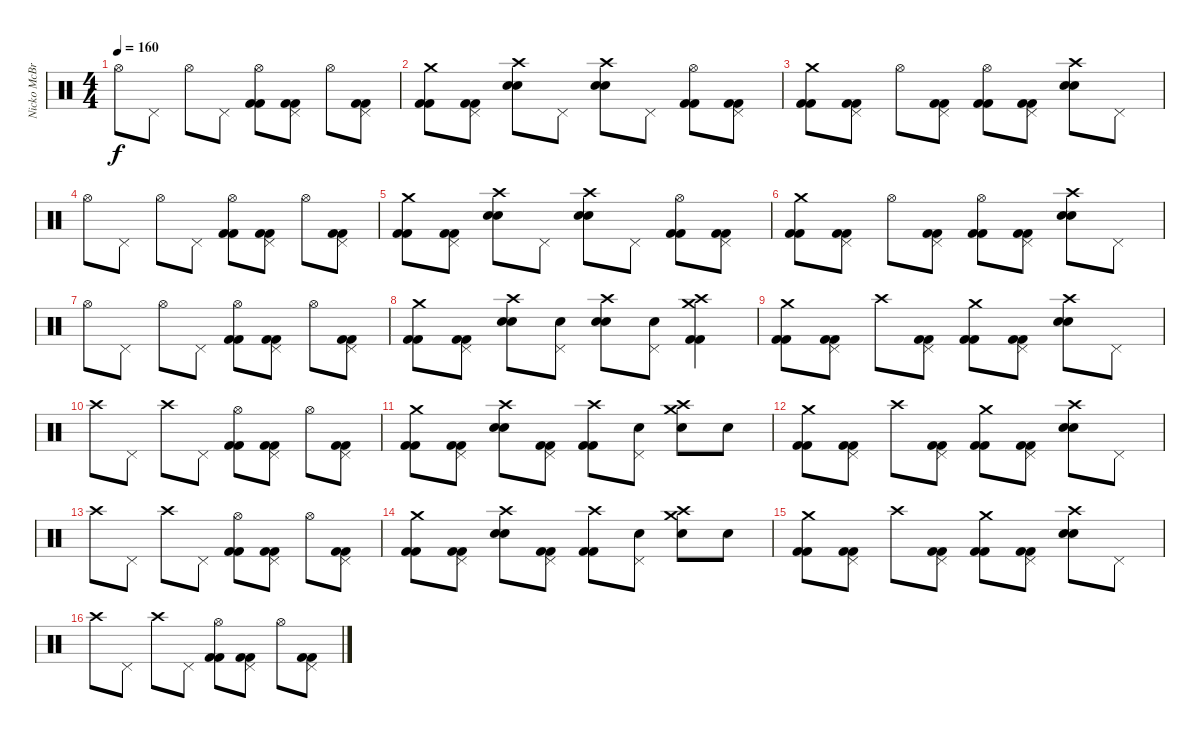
\track ("Nicko McBrain" "Nicko McBr") {instrument percussion}
\staff {score}
\articulation defaults
\ts (4 4)
\tempo 160
\clef neutral
\ks c "Hi-Hat (open)".8{dy f} "Pedal Hi-Hat (hit)".8 "Hi-Hat (open)".8 "Pedal Hi-Hat (hit)".8
("Hi-Hat (open)" "Kick (hit) 2" "Kick (hit) 2").8 ("Pedal Hi-Hat (hit)" "Kick (hit) 2" "Kick (hit) 2").8 "Hi-Hat (open)".8 ("Pedal Hi-Hat (hit)" "Kick (hit) 2" "Kick (hit) 2").8 |
("Crash medium (hit)" "Kick (hit) 2" "Kick (hit) 2").8 ("Pedal Hi-Hat (hit)" "Kick (hit) 2" "Kick (hit) 2").8 ("Crash high (hit)" "Snare (hit) 2" "Snare (hit) 2").8 "Pedal Hi-Hat (hit)".8 ("Crash high (hit)" "Snare (hit) 2" "Snare (hit) 2").8 "Pedal Hi-Hat (hit)".8 ("Hi-Hat (open)" "Kick (hit) 2" "Kick (hit) 2").8 ("Pedal Hi-Hat (hit)" "Kick (hit) 2" "Kick (hit) 2").8 |
("Crash medium (hit)" "Kick (hit) 2" "Kick (hit) 2").8 ("Pedal Hi-Hat (hit)" "Kick (hit) 2" "Kick (hit) 2").8 "Hi-Hat (open)".8 ("Pedal Hi-Hat (hit)" "Kick (hit) 2" "Kick (hit) 2").8 ("Hi-Hat (open)" "Kick (hit) 2" "Kick (hit) 2").8 ("Pedal Hi-Hat (hit)" "Kick (hit) 2" "Kick (hit) 2").8 ("Crash high (hit)" "Snare (hit) 2" "Snare (hit) 2").8 "Pedal Hi-Hat (hit)".8 |
"Hi-Hat (open)".8 "Pedal Hi-Hat (hit)".8 "Hi-Hat (open)".8 "Pedal Hi-Hat (hit)".8 ("Hi-Hat (open)" "Kick (hit) 2" "Kick (hit) 2").8 ("Pedal Hi-Hat (hit)" "Kick (hit) 2" "Kick (hit) 2").8 "Hi-Hat (open)".8 ("Pedal Hi-Hat (hit)" "Kick (hit) 2" "Kick (hit) 2").8 |
("Crash medium (hit)" "Kick (hit) 2" "Kick (hit) 2").8 ("Pedal Hi-Hat (hit)" "Kick (hit) 2" "Kick (hit) 2").8 ("Crash high (hit)" "Snare (hit) 2" "Snare (hit) 2").8 "Pedal Hi-Hat (hit)".8 ("Crash high (hit)" "Snare (hit) 2" "Snare (hit) 2").8 "Pedal Hi-Hat (hit)".8 ("Hi-Hat (open)" "Kick (hit) 2" "Kick (hit) 2").8 ("Pedal Hi-Hat (hit)" "Kick (hit) 2" "Kick (hit) 2").8 |
("Crash medium (hit)" "Kick (hit) 2" "Kick (hit) 2").8 ("Pedal Hi-Hat (hit)" "Kick (hit) 2" "Kick (hit) 2").8 "Hi-Hat (open)".8 ("Pedal Hi-Hat (hit)" "Kick (hit) 2" "Kick (hit) 2").8 ("Hi-Hat (open)" "Kick (hit) 2" "Kick (hit) 2").8 ("Pedal Hi-Hat (hit)" "Kick (hit) 2" "Kick (hit) 2").8 ("Crash high (hit)" "Snare (hit) 2" "Snare (hit) 2").8 "Pedal Hi-Hat (hit)".8 |
"Hi-Hat (open)".8 "Pedal Hi-Hat (hit)".8 "Hi-Hat (open)".8 "Pedal Hi-Hat (hit)".8 ("Hi-Hat (open)" "Kick (hit) 2" "Kick (hit) 2").8 ("Pedal Hi-Hat (hit)" "Kick (hit) 2" "Kick (hit) 2").8 "Hi-Hat (open)".8 ("Pedal Hi-Hat (hit)" "Kick (hit) 2" "Kick (hit) 2").8 |
("Crash medium (hit)" "Kick (hit) 2" "Kick (hit) 2").8 ("Pedal Hi-Hat (hit)" "Kick (hit) 2" "Kick (hit) 2").8 ("Crash high (hit)" "Snare (hit) 2" "Snare (hit) 2").8 ("Pedal Hi-Hat (hit)" "Snare (hit) 2").8 ("Crash high (hit)" "Snare (hit) 2" "Snare (hit) 2").8 ("Pedal Hi-Hat (hit)" "Snare (hit) 2").8 ("Crash high (hit)" "Crash medium (hit)" "Kick (hit) 2" "Kick (hit) 2").4 |
("Crash medium (hit)" "Kick (hit) 2" "Kick (hit) 2").8 ("Pedal Hi-Hat (hit)" "Kick (hit) 2" "Kick (hit) 2").8 "Crash high (hit)".8 ("Pedal Hi-Hat (hit)" "Kick (hit) 2" "Kick (hit) 2").8 ("Crash medium (hit)" "Kick (hit) 2" "Kick (hit) 2").8 ("Pedal Hi-Hat (hit)" "Kick (hit) 2" "Kick (hit) 2").8 ("Crash high (hit)" "Snare (hit) 2" "Snare (hit) 2").8 "Pedal Hi-Hat (hit)".8 |
"Crash high (hit)".8 "Pedal Hi-Hat (hit)".8 "Crash high (hit)".8 "Pedal Hi-Hat (hit)".8 ("Hi-Hat (open)" "Kick (hit) 2" "Kick (hit) 2").8 ("Pedal Hi-Hat (hit)" "Kick (hit) 2" "Kick (hit) 2").8 "Hi-Hat (open)".8 ("Pedal Hi-Hat (hit)" "Kick (hit) 2" "Kick (hit) 2").8 |
("Crash medium (hit)" "Kick (hit) 2" "Kick (hit) 2").8 ("Pedal Hi-Hat (hit)" "Kick (hit) 2" "Kick (hit) 2").8 ("Crash high (hit)" "Snare (hit) 2" "Snare (hit) 2").8 ("Pedal Hi-Hat (hit)" "Kick (hit) 2" "Kick (hit) 2").8 ("Crash high (hit)" "Kick (hit) 2" "Kick (hit) 2").8 ("Pedal Hi-Hat (hit)" "Snare (hit) 2").8 ("Crash high (hit)" "Crash medium (hit)" "Snare (hit) 2").8 "Snare (hit) 2".8 |
("Crash medium (hit)" "Kick (hit) 2" "Kick (hit) 2").8 ("Pedal Hi-Hat (hit)" "Kick (hit) 2" "Kick (hit) 2").8 "Crash high (hit)".8 ("Pedal Hi-Hat (hit)" "Kick (hit) 2" "Kick (hit) 2").8 ("Crash medium (hit)" "Kick (hit) 2" "Kick (hit) 2").8 ("Pedal Hi-Hat (hit)" "Kick (hit) 2" "Kick (hit) 2").8 ("Crash high (hit)" "Snare (hit) 2" "Snare (hit) 2").8 "Pedal Hi-Hat (hit)".8 |
"Crash high (hit)".8 "Pedal Hi-Hat (hit)".8 "Crash high (hit)".8 "Pedal Hi-Hat (hit)".8 ("Hi-Hat (open)" "Kick (hit) 2" "Kick (hit) 2").8 ("Pedal Hi-Hat (hit)" "Kick (hit) 2" "Kick (hit) 2").8 "Hi-Hat (open)".8 ("Pedal Hi-Hat (hit)" "Kick (hit) 2" "Kick (hit) 2").8 |
("Crash medium (hit)" "Kick (hit) 2" "Kick (hit) 2").8 ("Pedal Hi-Hat (hit)" "Kick (hit) 2" "Kick (hit) 2").8 ("Crash high (hit)" "Snare (hit) 2" "Snare (hit) 2").8 ("Pedal Hi-Hat (hit)" "Kick (hit) 2" "Kick (hit) 2").8 ("Crash high (hit)" "Kick (hit) 2" "Kick (hit) 2").8 ("Pedal Hi-Hat (hit)" "Snare (hit) 2").8 ("Crash high (hit)" "Crash medium (hit)" "Snare (hit) 2").8 "Snare (hit) 2".8 |
("Crash medium (hit)" "Kick (hit) 2" "Kick (hit) 2").8 ("Pedal Hi-Hat (hit)" "Kick (hit) 2" "Kick (hit) 2").8 "Crash high (hit)".8 ("Pedal Hi-Hat (hit)" "Kick (hit) 2" "Kick (hit) 2").8 ("Crash medium (hit)" "Kick (hit) 2" "Kick (hit) 2").8 ("Pedal Hi-Hat (hit)" "Kick (hit) 2" "Kick (hit) 2").8 ("Crash high (hit)" "Snare (hit) 2" "Snare (hit) 2").8 "Pedal Hi-Hat (hit)".8 |
"Crash high (hit)".8 "Pedal Hi-Hat (hit)".8 "Crash high (hit)".8 "Pedal Hi-Hat (hit)".8 ("Hi-Hat (open)" "Kick (hit) 2" "Kick (hit) 2").8 ("Pedal Hi-Hat (hit)" "Kick (hit) 2" "Kick (hit) 2").8 "Hi-Hat (open)".8 ("Pedal Hi-Hat (hit)" "Kick (hit) 2" "Kick (hit) 2").8
